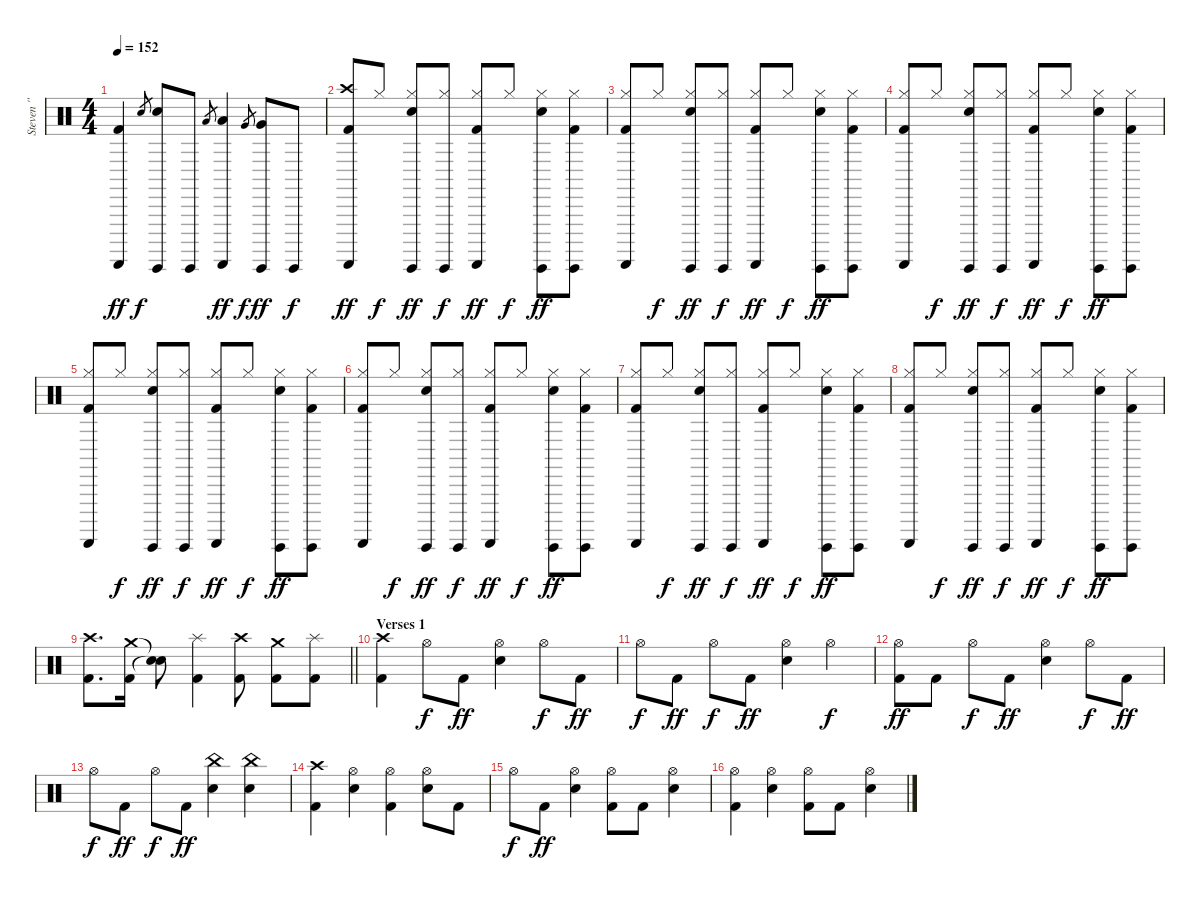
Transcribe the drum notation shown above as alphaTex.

\track ("Steven '' Popcorn '' Adler" "Steven '' ") {instrument percussion}
\staff {score}
\articulation defaults
\ts (4 4)
\tempo 152
\clef neutral
\ks c
("Guiro (scrap-return)" "Kick (hit) 2").4{dy ff} "Snare (hit) 2".8{gr dy f} ("Guiro (hit)" "Snare (hit) 2").8 "Guiro (hit)".8 "Low Tom (hit)".8{gr} ("Guiro (scrap-return)" "Low Tom (hit)").4{dy ff} "Very Low Tom (hit)".8{gr dy f} ("Guiro (hit)" "Very Low Tom (hit)").8{dy ff} "Guiro (hit)".8{dy f} |
("Crash high (hit)" "Guiro (scrap-return)" "Kick (hit) 2").8{dy ff} "Hi-Hat (closed)".8{dy f} ("Hi-Hat (closed)" "Guiro (hit)" "Snare (hit) 2").8{dy ff} ("Hi-Hat (closed)" "Guiro (hit)").8{dy f} ("Hi-Hat (closed)" "Guiro (scrap-return)" "Kick (hit) 2").8{dy ff} "Hi-Hat (closed)".8{dy f} ("Hi-Hat (closed)" "Guiro (hit)" "Snare (hit) 2").8{dy ff} ("Hi-Hat (closed)" "Guiro (hit)" "Kick (hit) 2").8 |
("Hi-Hat (closed)" "Guiro (scrap-return)" "Kick (hit) 2").8 "Hi-Hat (closed)".8{dy f} ("Hi-Hat (closed)" "Guiro (hit)" "Snare (hit) 2").8{dy ff} ("Hi-Hat (closed)" "Guiro (hit)").8{dy f} ("Hi-Hat (closed)" "Guiro (scrap-return)" "Kick (hit) 2").8{dy ff} "Hi-Hat (closed)".8{dy f} ("Hi-Hat (closed)" "Guiro (hit)" "Snare (hit) 2").8{dy ff} ("Hi-Hat (closed)" "Guiro (hit)" "Kick (hit) 2").8 |
("Hi-Hat (closed)" "Guiro (scrap-return)" "Kick (hit) 2").8 "Hi-Hat (closed)".8{dy f} ("Hi-Hat (closed)" "Guiro (hit)" "Snare (hit) 2").8{dy ff} ("Hi-Hat (closed)" "Guiro (hit)").8{dy f} ("Hi-Hat (closed)" "Guiro (scrap-return)" "Kick (hit) 2").8{dy ff} "Hi-Hat (closed)".8{dy f} ("Hi-Hat (closed)" "Guiro (hit)" "Snare (hit) 2").8{dy ff} ("Hi-Hat (closed)" "Guiro (hit)" "Kick (hit) 2").8 |
("Hi-Hat (closed)" "Guiro (scrap-return)" "Kick (hit) 2").8 "Hi-Hat (closed)".8{dy f} ("Hi-Hat (closed)" "Guiro (hit)" "Snare (hit) 2").8{dy ff} ("Hi-Hat (closed)" "Guiro (hit)").8{dy f} ("Hi-Hat (closed)" "Guiro (scrap-return)" "Kick (hit) 2").8{dy ff} "Hi-Hat (closed)".8{dy f} ("Hi-Hat (closed)" "Guiro (hit)" "Snare (hit) 2").8{dy ff} ("Hi-Hat (closed)" "Guiro (hit)" "Kick (hit) 2").8 |
("Hi-Hat (closed)" "Guiro (scrap-return)" "Kick (hit) 2").8 "Hi-Hat (closed)".8{dy f} ("Hi-Hat (closed)" "Guiro (hit)" "Snare (hit) 2").8{dy ff} ("Hi-Hat (closed)" "Guiro (hit)").8{dy f} ("Hi-Hat (closed)" "Guiro (scrap-return)" "Kick (hit) 2").8{dy ff} "Hi-Hat (closed)".8{dy f} ("Hi-Hat (closed)" "Guiro (hit)" "Snare (hit) 2").8{dy ff} ("Hi-Hat (closed)" "Guiro (hit)" "Kick (hit) 2").8 |
("Hi-Hat (closed)" "Guiro (scrap-return)" "Kick (hit) 2").8 "Hi-Hat (closed)".8{dy f} ("Hi-Hat (closed)" "Guiro (hit)" "Snare (hit) 2").8{dy ff} ("Hi-Hat (closed)" "Guiro (hit)").8{dy f} ("Hi-Hat (closed)" "Guiro (scrap-return)" "Kick (hit) 2").8{dy ff} "Hi-Hat (closed)".8{dy f} ("Hi-Hat (closed)" "Guiro (hit)" "Snare (hit) 2").8{dy ff} ("Hi-Hat (closed)" "Guiro (hit)" "Kick (hit) 2").8 |
("Hi-Hat (closed)" "Guiro (scrap-return)" "Kick (hit) 2").8 "Hi-Hat (closed)".8{dy f} ("Hi-Hat (closed)" "Guiro (hit)" "Snare (hit) 2").8{dy ff} ("Hi-Hat (closed)" "Guiro (hit)").8{dy f} ("Hi-Hat (closed)" "Guiro (scrap-return)" "Kick (hit) 2").8{dy ff} "Hi-Hat (closed)".8{dy f} ("Hi-Hat (closed)" "Guiro (hit)" "Snare (hit) 2").8{dy ff} ("Hi-Hat (closed)" "Guiro (hit)" "Kick (hit) 2").8 |
\barLineRight lightlight
("Crash high (hit)" "Kick (hit) 2").8{d} ("Crash medium (hit)" "Kick (hit) 2").16 ("Snare (hit)"{t} "Snare (hit)"{t}).8 ("Splash (hit)" "Kick (hit) 2").4 ("Crash high (hit)" "Kick (hit) 2").8 ("Crash medium (hit)" "Kick (hit) 2").8 ("Splash (hit)" "Kick (hit) 2").8 |
\section ("" "Verses 1")
("Crash high (hit)" "Kick (hit) 2").4 "Hi-Hat (open)".8{dy f} "Kick (hit) 2".8{dy ff} ("Hi-Hat (open)" "Snare (hit) 2").4 "Hi-Hat (open)".8{dy f} "Kick (hit) 2".8{dy ff} |
"Hi-Hat (open)".8{dy f} "Kick (hit) 2".8{dy ff} "Hi-Hat (open)".8{dy f} "Kick (hit) 2".8{dy ff} ("Hi-Hat (open)" "Snare (hit) 2").4 "Hi-Hat (open)".4{dy f} |
("Hi-Hat (open)" "Kick (hit) 2").8{dy ff} "Kick (hit) 2".8 "Hi-Hat (open)".8{dy f} "Kick (hit) 2".8{dy ff} ("Hi-Hat (open)" "Snare (hit) 2").4 "Hi-Hat (open)".8{dy f} "Kick (hit) 2".8{dy ff} |
"Hi-Hat (open)".8{dy f} "Kick (hit) 2".8{dy ff} "Hi-Hat (open)".8{dy f} "Kick (hit) 2".8{dy ff} ("China (hit)" "Snare (hit) 2").4 ("China (hit)" "Snare (hit) 2").4 |
("Crash high (hit)" "Kick (hit) 2").4 ("Hi-Hat (open)" "Snare (hit) 2").4 ("Hi-Hat (open)" "Kick (hit) 2").4 ("Hi-Hat (open)" "Snare (hit) 2").8 "Kick (hit) 2".8 |
"Hi-Hat (open)".8{dy f} "Kick (hit) 2".8{dy ff} ("Hi-Hat (open)" "Snare (hit) 2").4 ("Hi-Hat (open)" "Kick (hit) 2").8 "Kick (hit) 2".8 ("Hi-Hat (open)" "Snare (hit) 2").4 |
("Hi-Hat (open)" "Kick (hit) 2").4 ("Hi-Hat (open)" "Snare (hit) 2").4 ("Hi-Hat (open)" "Kick (hit) 2").8 "Kick (hit) 2".8 ("Hi-Hat (open)" "Snare (hit) 2").4
